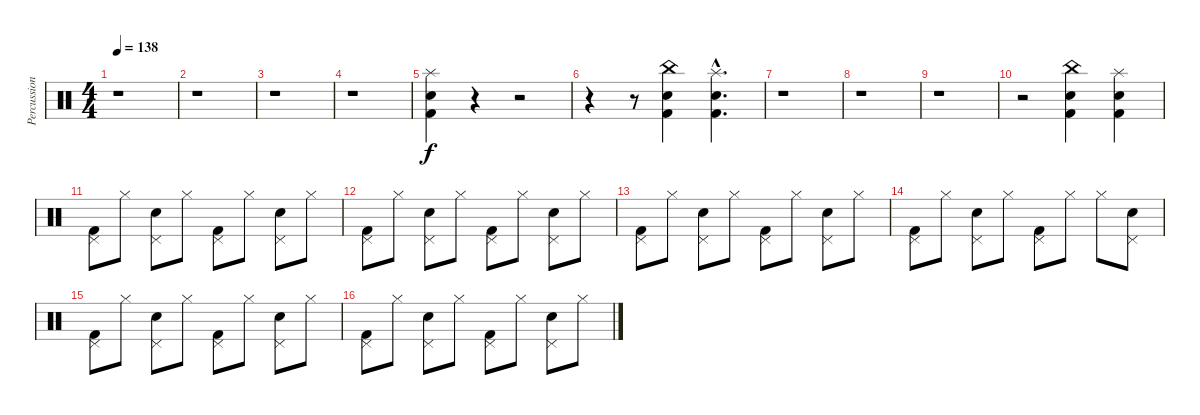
\track ("Percussions" "Percussion") {instrument percussion}
\staff {score}
\articulation defaults
\ts (4 4)
\tempo 138
\clef neutral
\ks c
r.1{dy f} |
r.1 |
r.1 |
r.1 |
("Splash (hit)" "Snare (hit) 2" "Kick (hit) 2").4 r.4 r.2 |
r.4 r.8 ("China (hit)" "Snare (hit) 2" "Kick (hit) 2").4 ("Splash (hit)"{hac} "Snare (hit) 2"{hac} "Kick (hit) 2"{hac}).4{d} |
r.1 |
r.1 |
r.1 |
r.2 ("China (hit)" "Snare (hit) 2" "Kick (hit) 2").4 ("Splash (hit)" "Snare (hit) 2" "Kick (hit) 2").4 |
("Pedal Hi-Hat (hit)" "Kick (hit) 2").8 "Hi-Hat (closed)".8 ("Pedal Hi-Hat (hit)" "Snare (hit) 2").8 "Hi-Hat (closed)".8 ("Pedal Hi-Hat (hit)" "Kick (hit) 2").8 "Hi-Hat (closed)".8 ("Pedal Hi-Hat (hit)" "Snare (hit) 2").8 "Hi-Hat (closed)".8 |
("Pedal Hi-Hat (hit)" "Kick (hit) 2").8 "Hi-Hat (closed)".8 ("Pedal Hi-Hat (hit)" "Snare (hit) 2").8 "Hi-Hat (closed)".8 ("Pedal Hi-Hat (hit)" "Kick (hit) 2").8 "Hi-Hat (closed)".8 ("Pedal Hi-Hat (hit)" "Snare (hit) 2").8 "Hi-Hat (closed)".8 |
("Pedal Hi-Hat (hit)" "Kick (hit) 2").8 "Hi-Hat (closed)".8 ("Pedal Hi-Hat (hit)" "Snare (hit) 2").8 "Hi-Hat (closed)".8 ("Pedal Hi-Hat (hit)" "Kick (hit) 2").8 "Hi-Hat (closed)".8 ("Pedal Hi-Hat (hit)" "Snare (hit) 2").8 "Hi-Hat (closed)".8 |
("Pedal Hi-Hat (hit)" "Kick (hit) 2").8 "Hi-Hat (closed)".8 ("Pedal Hi-Hat (hit)" "Snare (hit) 2").8 "Hi-Hat (closed)".8 ("Pedal Hi-Hat (hit)" "Kick (hit) 2").8 "Hi-Hat (closed)".8 "Hi-Hat (closed)".8 ("Pedal Hi-Hat (hit)" "Snare (hit) 2").8 |
("Pedal Hi-Hat (hit)" "Kick (hit) 2").8 "Hi-Hat (closed)".8 ("Pedal Hi-Hat (hit)" "Snare (hit) 2").8 "Hi-Hat (closed)".8 ("Pedal Hi-Hat (hit)" "Kick (hit) 2").8 "Hi-Hat (closed)".8 ("Pedal Hi-Hat (hit)" "Snare (hit) 2").8 "Hi-Hat (closed)".8 |
("Pedal Hi-Hat (hit)" "Kick (hit) 2").8 "Hi-Hat (closed)".8 ("Pedal Hi-Hat (hit)" "Snare (hit) 2").8 "Hi-Hat (closed)".8 ("Pedal Hi-Hat (hit)" "Kick (hit) 2").8 "Hi-Hat (closed)".8 ("Pedal Hi-Hat (hit)" "Snare (hit) 2").8 "Hi-Hat (closed)".8
